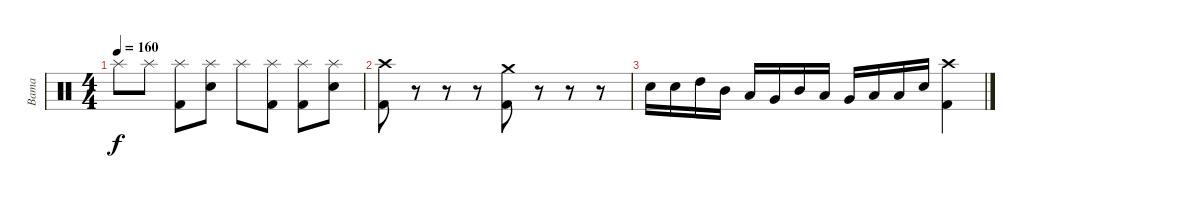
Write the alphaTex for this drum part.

\track ("Bama" "Bama") {instrument percussion}
\staff {score}
\articulation defaults
\ts (4 4)
\tempo 160
\clef neutral
\ks c "Splash (hit)".8{dy f} "Splash (hit)".8
("Splash (hit)" "Kick (hit) 2").8 ("Splash (hit)" "Electric Snare (hit)").8 "Splash (hit)".8 ("Splash (hit)" "Kick (hit) 2").8 ("Splash (hit)" "Kick (hit) 2").8 ("Splash (hit)" "Electric Snare (hit)").8 |
("Crash high (hit)" "Kick (hit) 2").8 r.8 r.8 r.8 ("Crash medium (hit)" "Kick (hit) 2").8 r.8 r.8 r.8 |
"Electric Snare (hit)".16 "Electric Snare (hit)".16 "High Tom (hit)".16 "Mid Tom (hit)".16 "Low Tom (hit)".16 "Very Low Tom (hit)".16 "Mid Tom (hit)".16 "Low Tom (hit)".16 "Very Low Tom (hit)".16 "Low Floor Tom (hit)".16 "Low Floor Tom (hit)".16 "Electric Snare (hit)".16 ("Crash high (hit)" "Kick (hit) 2").4
